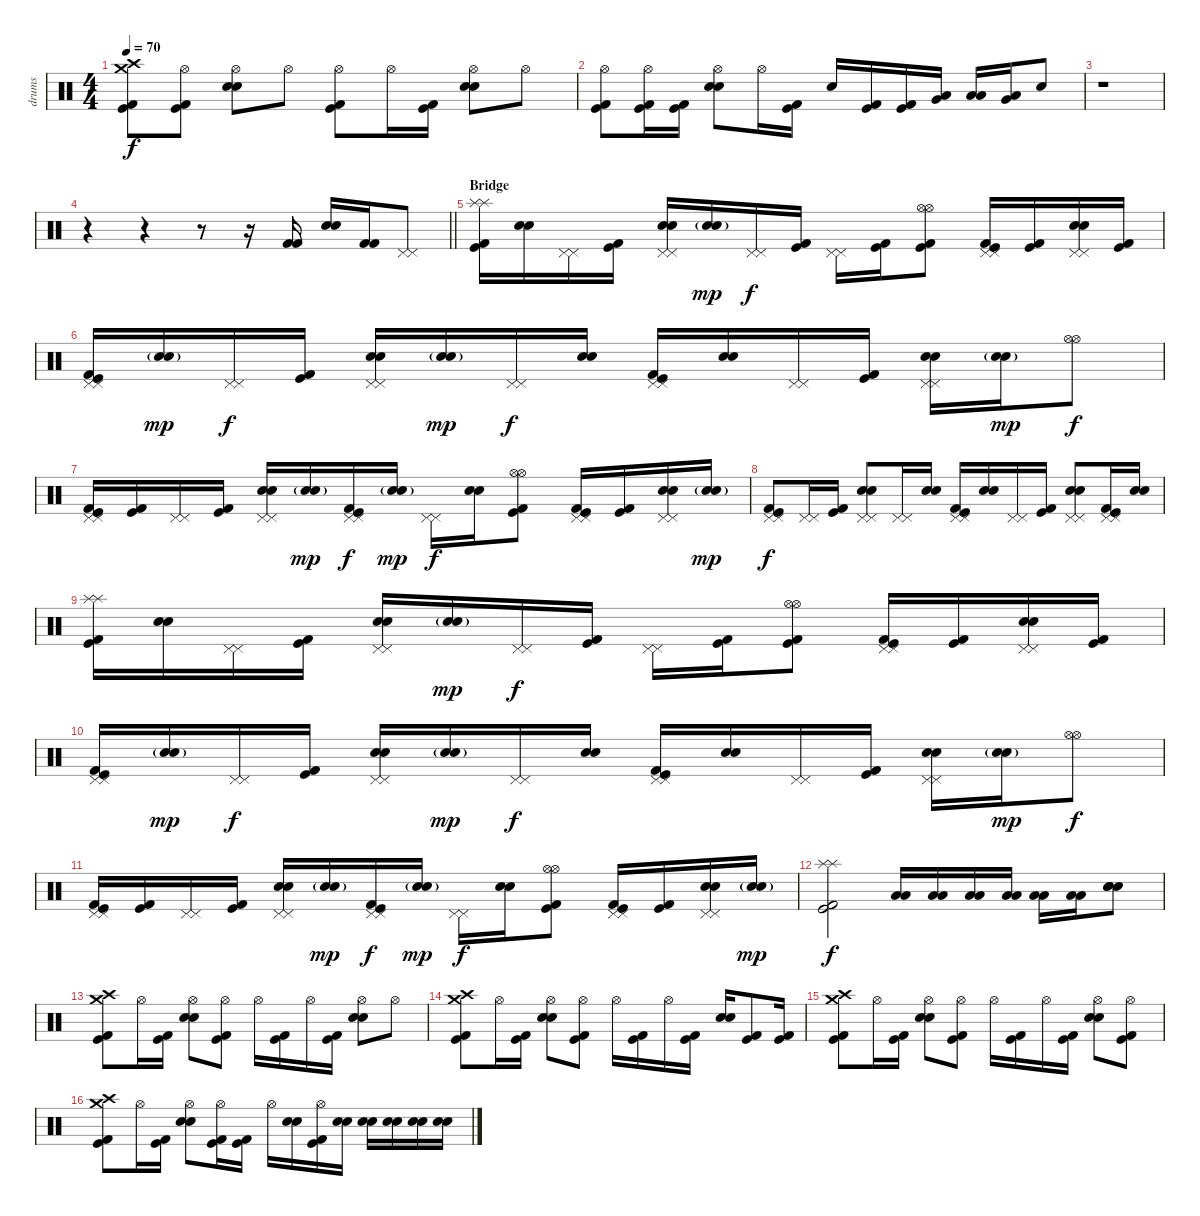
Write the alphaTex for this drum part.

\track ("drums" "drums") {instrument percussion}
\staff {score}
\articulation defaults
\ts (4 4)
\tempo 70
\clef neutral
\ks c
("Crash high (hit)" "Crash medium (hit)" "Kick (hit) 2" "Kick (hit)").8{dy f} ("Hi-Hat (open)" "Kick (hit) 2" "Kick (hit)").8 ("Hi-Hat (open)" "Electric Snare (hit)" "Electric Snare (hit)").8 "Hi-Hat (open)".8 ("Hi-Hat (open)" "Kick (hit) 2" "Kick (hit)").8 "Hi-Hat (open)".16 ("Kick (hit) 2" "Kick (hit)").16 ("Hi-Hat (open)" "Electric Snare (hit)" "Electric Snare (hit)").8 "Hi-Hat (open)".8 |
("Hi-Hat (open)" "Kick (hit) 2" "Kick (hit)").8 ("Hi-Hat (open)" "Kick (hit)" "Kick (hit) 2").16 ("Kick (hit)" "Kick (hit) 2").16 ("Hi-Hat (open)" "Electric Snare (hit)" "Electric Snare (hit)").8 "Hi-Hat (open)".16 ("Kick (hit)" "Kick (hit) 2").16 "Electric Snare (hit)".16 ("Kick (hit)" "Kick (hit) 2").16 ("Kick (hit)" "Kick (hit) 2").16 ("Very Low Tom (hit)" "Low Floor Tom (hit)").16 ("Low Tom (hit)" "Low Tom (hit)").16 ("Very Low Tom (hit)" "Low Floor Tom (hit)").16 "Snare (hit) 2".8 |
r.1 |
\barLineRight lightlight
r.4 r.4 r.8 r.16 ("Kick (hit) 2" "Kick (hit) 2").16 ("Snare (hit) 2" "Snare (hit) 2").16 ("Kick (hit) 2" "Kick (hit) 2").16 ("Pedal Hi-Hat (hit)" "Pedal Hi-Hat (hit)").8 |
\section ("" "Bridge")
("Splash (hit)" "Splash (hit)" "Kick (hit) 2" "Kick (hit)").16 ("Snare (hit) 2" "Snare (hit) 2").16 ("Pedal Hi-Hat (hit)" "Pedal Hi-Hat (hit)").16 ("Kick (hit) 2" "Kick (hit)").16 ("Pedal Hi-Hat (hit)" "Pedal Hi-Hat (hit)" "Snare (hit) 2" "Snare (hit) 2").16 ("Snare (hit) 2"{g} "Snare (hit) 2"{g}).16{dy mp} ("Pedal Hi-Hat (hit)" "Pedal Hi-Hat (hit)").16{dy f} ("Kick (hit) 2" "Kick (hit)").16 ("Pedal Hi-Hat (hit)" "Pedal Hi-Hat (hit)").16 ("Kick (hit) 2" "Kick (hit)").16 ("Hi-Hat (open)" "Hi-Hat (open)" "Kick (hit) 2" "Kick (hit)").8 ("Pedal Hi-Hat (hit)" "Pedal Hi-Hat (hit)" "Kick (hit) 2" "Kick (hit)").16 ("Kick (hit) 2" "Kick (hit)").16 ("Pedal Hi-Hat (hit)" "Pedal Hi-Hat (hit)" "Snare (hit) 2" "Snare (hit) 2").16 ("Kick (hit) 2" "Kick (hit)").16 |
("Pedal Hi-Hat (hit)" "Pedal Hi-Hat (hit)" "Kick (hit) 2" "Kick (hit)").16 ("Snare (hit) 2"{g} "Snare (hit) 2"{g}).16{dy mp} ("Pedal Hi-Hat (hit)" "Pedal Hi-Hat (hit)").16{dy f} ("Kick (hit) 2" "Kick (hit)").16 ("Pedal Hi-Hat (hit)" "Pedal Hi-Hat (hit)" "Snare (hit) 2" "Snare (hit) 2").16 ("Snare (hit) 2"{g} "Snare (hit) 2"{g}).16{dy mp} ("Pedal Hi-Hat (hit)" "Pedal Hi-Hat (hit)").16{dy f} ("Snare (hit) 2" "Snare (hit) 2").16 ("Pedal Hi-Hat (hit)" "Pedal Hi-Hat (hit)" "Kick (hit) 2" "Kick (hit)").16 ("Snare (hit) 2" "Snare (hit) 2").16 ("Pedal Hi-Hat (hit)" "Pedal Hi-Hat (hit)").16 ("Kick (hit) 2" "Kick (hit)").16 ("Pedal Hi-Hat (hit)" "Pedal Hi-Hat (hit)" "Snare (hit) 2" "Snare (hit) 2").16 ("Snare (hit) 2"{g} "Snare (hit) 2"{g}).16{dy mp} ("Hi-Hat (open)" "Hi-Hat (open)").8{dy f} |
("Pedal Hi-Hat (hit)" "Pedal Hi-Hat (hit)" "Kick (hit) 2" "Kick (hit)").16 ("Kick (hit) 2" "Kick (hit)").16 ("Pedal Hi-Hat (hit)" "Pedal Hi-Hat (hit)").16 ("Kick (hit) 2" "Kick (hit)").16 ("Pedal Hi-Hat (hit)" "Pedal Hi-Hat (hit)" "Snare (hit) 2" "Snare (hit) 2").16 ("Snare (hit) 2"{g} "Snare (hit) 2"{g}).16{dy mp} ("Pedal Hi-Hat (hit)" "Pedal Hi-Hat (hit)" "Kick (hit) 2" "Kick (hit)").16{dy f} ("Snare (hit) 2"{g} "Snare (hit) 2"{g}).16{dy mp} ("Pedal Hi-Hat (hit)" "Pedal Hi-Hat (hit)").16{dy f} ("Snare (hit) 2" "Snare (hit) 2").16 ("Hi-Hat (open)" "Hi-Hat (open)" "Kick (hit) 2" "Kick (hit)").8 ("Pedal Hi-Hat (hit)" "Pedal Hi-Hat (hit)" "Kick (hit) 2" "Kick (hit)").16 ("Kick (hit) 2" "Kick (hit)").16 ("Pedal Hi-Hat (hit)" "Pedal Hi-Hat (hit)" "Snare (hit) 2" "Snare (hit) 2").16 ("Snare (hit) 2"{g} "Snare (hit) 2"{g}).16{dy mp} |
("Pedal Hi-Hat (hit)" "Pedal Hi-Hat (hit)" "Kick (hit) 2" "Kick (hit)").8{dy f} ("Pedal Hi-Hat (hit)" "Pedal Hi-Hat (hit)").16 ("Kick (hit) 2" "Kick (hit)").16 ("Pedal Hi-Hat (hit)" "Pedal Hi-Hat (hit)" "Snare (hit) 2" "Snare (hit) 2").8 ("Pedal Hi-Hat (hit)" "Pedal Hi-Hat (hit)").16 ("Snare (hit) 2" "Snare (hit) 2").16 ("Pedal Hi-Hat (hit)" "Pedal Hi-Hat (hit)" "Kick (hit) 2" "Kick (hit)").16 ("Snare (hit) 2" "Snare (hit) 2").16 ("Pedal Hi-Hat (hit)" "Pedal Hi-Hat (hit)").16 ("Kick (hit) 2" "Kick (hit)").16 ("Pedal Hi-Hat (hit)" "Pedal Hi-Hat (hit)" "Snare (hit) 2" "Snare (hit) 2").8 ("Pedal Hi-Hat (hit)" "Pedal Hi-Hat (hit)" "Kick (hit) 2" "Kick (hit)").16 ("Snare (hit) 2" "Snare (hit) 2").16 |
("Splash (hit)" "Splash (hit)" "Kick (hit) 2" "Kick (hit)").16 ("Snare (hit) 2" "Snare (hit) 2").16 ("Pedal Hi-Hat (hit)" "Pedal Hi-Hat (hit)").16 ("Kick (hit) 2" "Kick (hit)").16 ("Pedal Hi-Hat (hit)" "Pedal Hi-Hat (hit)" "Snare (hit) 2" "Snare (hit) 2").16 ("Snare (hit) 2"{g} "Snare (hit) 2"{g}).16{dy mp} ("Pedal Hi-Hat (hit)" "Pedal Hi-Hat (hit)").16{dy f} ("Kick (hit) 2" "Kick (hit)").16 ("Pedal Hi-Hat (hit)" "Pedal Hi-Hat (hit)").16 ("Kick (hit) 2" "Kick (hit)").16 ("Hi-Hat (open)" "Hi-Hat (open)" "Kick (hit) 2" "Kick (hit)").8 ("Pedal Hi-Hat (hit)" "Pedal Hi-Hat (hit)" "Kick (hit) 2" "Kick (hit)").16 ("Kick (hit) 2" "Kick (hit)").16 ("Pedal Hi-Hat (hit)" "Pedal Hi-Hat (hit)" "Snare (hit) 2" "Snare (hit) 2").16 ("Kick (hit) 2" "Kick (hit)").16 |
("Pedal Hi-Hat (hit)" "Pedal Hi-Hat (hit)" "Kick (hit) 2" "Kick (hit)").16 ("Snare (hit) 2"{g} "Snare (hit) 2"{g}).16{dy mp} ("Pedal Hi-Hat (hit)" "Pedal Hi-Hat (hit)").16{dy f} ("Kick (hit) 2" "Kick (hit)").16 ("Pedal Hi-Hat (hit)" "Pedal Hi-Hat (hit)" "Snare (hit) 2" "Snare (hit) 2").16 ("Snare (hit) 2"{g} "Snare (hit) 2"{g}).16{dy mp} ("Pedal Hi-Hat (hit)" "Pedal Hi-Hat (hit)").16{dy f} ("Snare (hit) 2" "Snare (hit) 2").16 ("Pedal Hi-Hat (hit)" "Pedal Hi-Hat (hit)" "Kick (hit) 2" "Kick (hit)").16 ("Snare (hit) 2" "Snare (hit) 2").16 ("Pedal Hi-Hat (hit)" "Pedal Hi-Hat (hit)").16 ("Kick (hit) 2" "Kick (hit)").16 ("Pedal Hi-Hat (hit)" "Pedal Hi-Hat (hit)" "Snare (hit) 2" "Snare (hit) 2").16 ("Snare (hit) 2"{g} "Snare (hit) 2"{g}).16{dy mp} ("Hi-Hat (open)" "Hi-Hat (open)").8{dy f} |
("Pedal Hi-Hat (hit)" "Pedal Hi-Hat (hit)" "Kick (hit) 2" "Kick (hit)").16 ("Kick (hit) 2" "Kick (hit)").16 ("Pedal Hi-Hat (hit)" "Pedal Hi-Hat (hit)").16 ("Kick (hit) 2" "Kick (hit)").16 ("Pedal Hi-Hat (hit)" "Pedal Hi-Hat (hit)" "Snare (hit) 2" "Snare (hit) 2").16 ("Snare (hit) 2"{g} "Snare (hit) 2"{g}).16{dy mp} ("Pedal Hi-Hat (hit)" "Pedal Hi-Hat (hit)" "Kick (hit) 2" "Kick (hit)").16{dy f} ("Snare (hit) 2"{g} "Snare (hit) 2"{g}).16{dy mp} ("Pedal Hi-Hat (hit)" "Pedal Hi-Hat (hit)").16{dy f} ("Snare (hit) 2" "Snare (hit) 2").16 ("Hi-Hat (open)" "Hi-Hat (open)" "Kick (hit) 2" "Kick (hit)").8 ("Pedal Hi-Hat (hit)" "Pedal Hi-Hat (hit)" "Kick (hit) 2" "Kick (hit)").16 ("Kick (hit) 2" "Kick (hit)").16 ("Pedal Hi-Hat (hit)" "Pedal Hi-Hat (hit)" "Snare (hit) 2" "Snare (hit) 2").16 ("Snare (hit) 2"{g} "Snare (hit) 2"{g}).16{dy mp} |
("Splash (hit)" "Splash (hit)" "Kick (hit)" "Kick (hit) 2").2{dy f} ("Low Tom (hit)" "Low Floor Tom (hit)").16 ("Low Tom (hit)" "Low Floor Tom (hit)").16 ("Low Tom (hit)" "Low Floor Tom (hit)").16 ("Low Tom (hit)" "Low Floor Tom (hit)").16 ("Low Tom (hit)" "Low Floor Tom (hit)").16 ("Low Tom (hit)" "Low Floor Tom (hit)").16 ("Electric Snare (hit)" "Electric Snare (hit)" "Electric Snare (hit)").8 |
("Crash medium (hit)" "Crash high (hit)" "Kick (hit) 2" "Kick (hit)").8 "Hi-Hat (open)".16 ("Kick (hit)" "Kick (hit) 2").16 ("Hi-Hat (open)" "Electric Snare (hit)" "Electric Snare (hit)").8 ("Hi-Hat (open)" "Kick (hit)" "Kick (hit) 2").8 "Hi-Hat (open)".16 ("Kick (hit) 2" "Kick (hit)").16 "Hi-Hat (open)".16 ("Kick (hit) 2" "Kick (hit)").16 ("Hi-Hat (open)" "Electric Snare (hit)" "Electric Snare (hit)").8 "Hi-Hat (open)".8 |
("Crash medium (hit)" "Crash high (hit)" "Kick (hit)" "Kick (hit) 2").8 "Hi-Hat (open)".16 ("Kick (hit) 2" "Kick (hit)").16 ("Hi-Hat (open)" "Electric Snare (hit)" "Electric Snare (hit)").8 ("Hi-Hat (open)" "Kick (hit) 2" "Kick (hit)").8 "Hi-Hat (open)".16 ("Kick (hit)" "Kick (hit) 2").16 "Hi-Hat (open)".16 ("Kick (hit)" "Kick (hit) 2").16 ("Electric Snare (hit)" "Electric Snare (hit)").16 ("Kick (hit) 2" "Kick (hit)").8 ("Kick (hit) 2" "Kick (hit)").16 |
("Crash medium (hit)" "Crash high (hit)" "Kick (hit) 2" "Kick (hit)").8 "Hi-Hat (open)".16 ("Kick (hit)" "Kick (hit) 2").16 ("Hi-Hat (open)" "Electric Snare (hit)" "Electric Snare (hit)").8 ("Hi-Hat (open)" "Kick (hit)" "Kick (hit) 2").8 "Hi-Hat (open)".16 ("Kick (hit) 2" "Kick (hit)").16 "Hi-Hat (open)".16 ("Kick (hit) 2" "Kick (hit)").16 ("Hi-Hat (open)" "Electric Snare (hit)" "Electric Snare (hit)").8 ("Hi-Hat (open)" "Kick (hit)" "Kick (hit) 2").8 |
("Crash medium (hit)" "Crash high (hit)" "Kick (hit) 2" "Kick (hit)").8 "Hi-Hat (open)".16 ("Kick (hit)" "Kick (hit) 2").16 ("Hi-Hat (open)" "Electric Snare (hit)" "Electric Snare (hit)").8 ("Hi-Hat (open)" "Kick (hit) 2" "Kick (hit)").16 ("Kick (hit) 2" "Kick (hit)").16 "Hi-Hat (open)".16 ("Electric Snare (hit)" "Electric Snare (hit)").16 ("Hi-Hat (open)" "Kick (hit)" "Kick (hit) 2").16 ("Electric Snare (hit)" "Electric Snare (hit)").16 ("Electric Snare (hit)" "Electric Snare (hit)").16 ("Electric Snare (hit)" "Electric Snare (hit)").16 ("Electric Snare (hit)" "Electric Snare (hit)").16 ("Electric Snare (hit)" "Electric Snare (hit)").16
